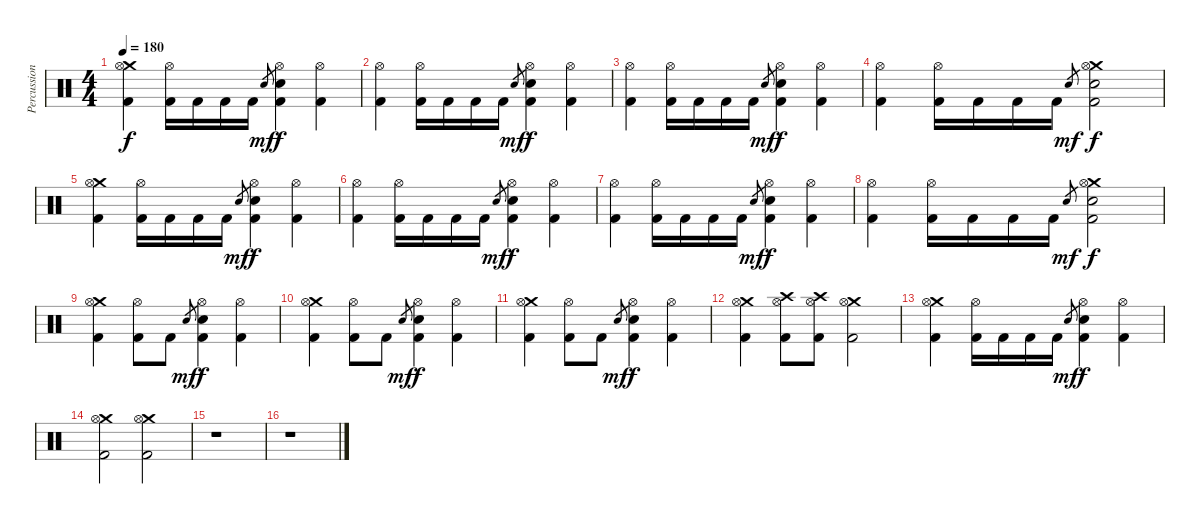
\track ("Percussion" "Percussion") {instrument percussion}
\staff {score}
\articulation defaults
\ts (4 4)
\tempo 180
\clef neutral
\ks c
("Crash medium (hit)" "Hi-Hat (open)" "Kick (hit) 2").4{dy f} ("Hi-Hat (open)" "Kick (hit) 2").16 "Kick (hit) 2".16 "Kick (hit) 2".16 "Kick (hit) 2".16 "Snare (hit)".8{gr dy mf} ("Hi-Hat (open)" "Snare (hit) 2" "Kick (hit) 2").4{dy f} ("Hi-Hat (open)" "Kick (hit) 2").4 |
("Hi-Hat (open)" "Kick (hit) 2").4 ("Hi-Hat (open)" "Kick (hit) 2").16 "Kick (hit) 2".16 "Kick (hit) 2".16 "Kick (hit) 2".16 "Snare (hit)".8{gr dy mf} ("Hi-Hat (open)" "Snare (hit) 2" "Kick (hit) 2").4{dy f} ("Hi-Hat (open)" "Kick (hit) 2").4 |
("Hi-Hat (open)" "Kick (hit) 2").4 ("Hi-Hat (open)" "Kick (hit) 2").16 "Kick (hit) 2".16 "Kick (hit) 2".16 "Kick (hit) 2".16 "Snare (hit)".8{gr dy mf} ("Hi-Hat (open)" "Snare (hit) 2" "Kick (hit) 2").4{dy f} ("Hi-Hat (open)" "Kick (hit) 2").4 |
("Hi-Hat (open)" "Kick (hit) 2").4 ("Hi-Hat (open)" "Kick (hit) 2").16 "Kick (hit) 2".16 "Kick (hit) 2".16 "Kick (hit) 2".16 "Snare (hit)".8{gr dy mf} ("Crash medium (hit)" "Hi-Hat (open)" "Snare (hit) 2" "Kick (hit) 2").2{dy f} |
("Crash medium (hit)" "Hi-Hat (open)" "Kick (hit) 2").4 ("Hi-Hat (open)" "Kick (hit) 2").16 "Kick (hit) 2".16 "Kick (hit) 2".16 "Kick (hit) 2".16 "Snare (hit)".8{gr dy mf} ("Hi-Hat (open)" "Snare (hit) 2" "Kick (hit) 2").4{dy f} ("Hi-Hat (open)" "Kick (hit) 2").4 |
("Hi-Hat (open)" "Kick (hit) 2").4 ("Hi-Hat (open)" "Kick (hit) 2").16 "Kick (hit) 2".16 "Kick (hit) 2".16 "Kick (hit) 2".16 "Snare (hit)".8{gr dy mf} ("Hi-Hat (open)" "Snare (hit) 2" "Kick (hit) 2").4{dy f} ("Hi-Hat (open)" "Kick (hit) 2").4 |
("Hi-Hat (open)" "Kick (hit) 2").4 ("Hi-Hat (open)" "Kick (hit) 2").16 "Kick (hit) 2".16 "Kick (hit) 2".16 "Kick (hit) 2".16 "Snare (hit)".8{gr dy mf} ("Hi-Hat (open)" "Snare (hit) 2" "Kick (hit) 2").4{dy f} ("Hi-Hat (open)" "Kick (hit) 2").4 |
("Hi-Hat (open)" "Kick (hit) 2").4 ("Hi-Hat (open)" "Kick (hit) 2").16 "Kick (hit) 2".16 "Kick (hit) 2".16 "Kick (hit) 2".16 "Snare (hit)".8{gr dy mf} ("Crash medium (hit)" "Hi-Hat (open)" "Snare (hit) 2" "Kick (hit) 2").2{dy f} |
("Crash medium (hit)" "Hi-Hat (open)" "Kick (hit) 2").4 ("Hi-Hat (open)" "Kick (hit) 2").8 "Kick (hit) 2".8 "Snare (hit)".8{gr dy mf} ("Hi-Hat (open)" "Snare (hit) 2" "Kick (hit) 2").4{dy f} ("Hi-Hat (open)" "Kick (hit) 2").4 |
("Crash medium (hit)" "Hi-Hat (open)" "Kick (hit) 2").4 ("Hi-Hat (open)" "Kick (hit) 2").8 "Kick (hit) 2".8 "Snare (hit)".8{gr dy mf} ("Hi-Hat (open)" "Snare (hit) 2" "Kick (hit) 2").4{dy f} ("Hi-Hat (open)" "Kick (hit) 2").4 |
("Crash medium (hit)" "Hi-Hat (open)" "Kick (hit) 2").4 ("Hi-Hat (open)" "Kick (hit) 2").8 "Kick (hit) 2".8 "Snare (hit)".8{gr dy mf} ("Hi-Hat (open)" "Snare (hit) 2" "Kick (hit) 2").4{dy f} ("Hi-Hat (open)" "Kick (hit) 2").4 |
("Crash medium (hit)" "Hi-Hat (open)" "Kick (hit) 2").4 ("Crash high (hit)" "Hi-Hat (open)" "Kick (hit) 2").8 ("Crash high (hit)" "Hi-Hat (open)" "Kick (hit) 2").8 ("Crash medium (hit)" "Hi-Hat (open)" "Kick (hit) 2").2 |
("Crash medium (hit)" "Hi-Hat (open)" "Kick (hit) 2").4 ("Hi-Hat (open)" "Kick (hit) 2").16 "Kick (hit) 2".16 "Kick (hit) 2".16 "Kick (hit) 2".16 "Snare (hit)".8{gr dy mf} ("Hi-Hat (open)" "Snare (hit) 2" "Kick (hit) 2").4{dy f} ("Hi-Hat (open)" "Kick (hit) 2").4 |
("Crash medium (hit)" "Hi-Hat (open)" "Kick (hit) 2").2 ("Crash medium (hit)" "Hi-Hat (open)" "Kick (hit) 2").2 |
r.1 |
r.1
